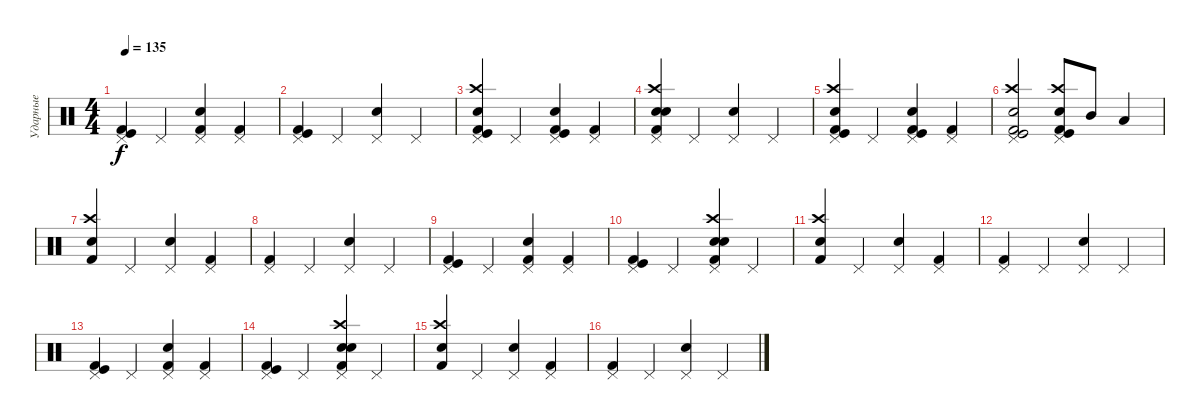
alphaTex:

\track ("Ударные" "Ударные") {instrument percussion}
\staff {score}
\articulation defaults
\ts (4 4)
\tempo 135
\clef neutral
\ks c
("Pedal Hi-Hat (hit)" "Kick (hit) 2" "Kick (hit)").4{dy f} "Pedal Hi-Hat (hit)".4 ("Pedal Hi-Hat (hit)" "Electric Snare (hit)" "Kick (hit) 2").4 ("Pedal Hi-Hat (hit)" "Kick (hit) 2").4 |
("Kick (hit) 2" "Kick (hit)" "Pedal Hi-Hat (hit)").4 "Pedal Hi-Hat (hit)".4 ("Electric Snare (hit)" "Pedal Hi-Hat (hit)").4 "Pedal Hi-Hat (hit)".4 |
("Pedal Hi-Hat (hit)" "Kick (hit)" "Crash high (hit)" "Snare (hit) 2" "Kick (hit) 2").4 "Pedal Hi-Hat (hit)".4 ("Kick (hit)" "Pedal Hi-Hat (hit)" "Electric Snare (hit)" "Kick (hit) 2").4 ("Pedal Hi-Hat (hit)" "Kick (hit) 2").4 |
("Snare (hit) 2" "Pedal Hi-Hat (hit)" "Kick (hit) 2" "Crash high (hit)" "Electric Snare (hit)").4 "Pedal Hi-Hat (hit)".4 ("Pedal Hi-Hat (hit)" "Electric Snare (hit)").4 "Pedal Hi-Hat (hit)".4 |
("Pedal Hi-Hat (hit)" "Kick (hit)" "Crash high (hit)" "Snare (hit) 2" "Kick (hit) 2").4 "Pedal Hi-Hat (hit)".4 ("Pedal Hi-Hat (hit)" "Kick (hit)" "Snare (hit) 2" "Kick (hit) 2").4 ("Pedal Hi-Hat (hit)" "Kick (hit) 2").4 |
("Pedal Hi-Hat (hit)" "Kick (hit)" "Crash high (hit)" "Snare (hit) 2" "Kick (hit) 2").2 ("Pedal Hi-Hat (hit)" "Kick (hit)" "Crash high (hit)" "Snare (hit) 2" "Kick (hit) 2").8 "Mid Tom (hit)".8 "Low Tom (hit)".4 |
("Kick (hit) 2" "Snare (hit) 2" "Crash high (hit)").4 "Pedal Hi-Hat (hit)".4 ("Electric Snare (hit)" "Pedal Hi-Hat (hit)").4 ("Kick (hit) 2" "Pedal Hi-Hat (hit)").4 |
("Pedal Hi-Hat (hit)" "Kick (hit) 2").4 "Pedal Hi-Hat (hit)".4 ("Pedal Hi-Hat (hit)" "Electric Snare (hit)").4 "Pedal Hi-Hat (hit)".4 |
("Pedal Hi-Hat (hit)" "Kick (hit) 2" "Kick (hit)").4 "Pedal Hi-Hat (hit)".4 ("Pedal Hi-Hat (hit)" "Electric Snare (hit)" "Kick (hit) 2").4 ("Pedal Hi-Hat (hit)" "Kick (hit) 2").4 |
("Kick (hit) 2" "Kick (hit)" "Pedal Hi-Hat (hit)").4 "Pedal Hi-Hat (hit)".4 ("Snare (hit) 2" "Kick (hit) 2" "Electric Snare (hit)" "Pedal Hi-Hat (hit)" "Crash high (hit)").4 "Pedal Hi-Hat (hit)".4 |
("Kick (hit) 2" "Snare (hit) 2" "Crash high (hit)").4 "Pedal Hi-Hat (hit)".4 ("Electric Snare (hit)" "Pedal Hi-Hat (hit)").4 ("Kick (hit) 2" "Pedal Hi-Hat (hit)").4 |
("Pedal Hi-Hat (hit)" "Kick (hit) 2").4 "Pedal Hi-Hat (hit)".4 ("Pedal Hi-Hat (hit)" "Electric Snare (hit)").4 "Pedal Hi-Hat (hit)".4 |
("Pedal Hi-Hat (hit)" "Kick (hit) 2" "Kick (hit)").4 "Pedal Hi-Hat (hit)".4 ("Pedal Hi-Hat (hit)" "Electric Snare (hit)" "Kick (hit) 2").4 ("Pedal Hi-Hat (hit)" "Kick (hit) 2").4 |
("Kick (hit) 2" "Kick (hit)" "Pedal Hi-Hat (hit)").4 "Pedal Hi-Hat (hit)".4 ("Snare (hit) 2" "Kick (hit) 2" "Electric Snare (hit)" "Pedal Hi-Hat (hit)" "Crash high (hit)").4 "Pedal Hi-Hat (hit)".4 |
("Kick (hit) 2" "Snare (hit) 2" "Crash high (hit)").4 "Pedal Hi-Hat (hit)".4 ("Electric Snare (hit)" "Pedal Hi-Hat (hit)").4 ("Kick (hit) 2" "Pedal Hi-Hat (hit)").4 |
("Pedal Hi-Hat (hit)" "Kick (hit) 2").4 "Pedal Hi-Hat (hit)".4 ("Pedal Hi-Hat (hit)" "Electric Snare (hit)").4 "Pedal Hi-Hat (hit)".4
